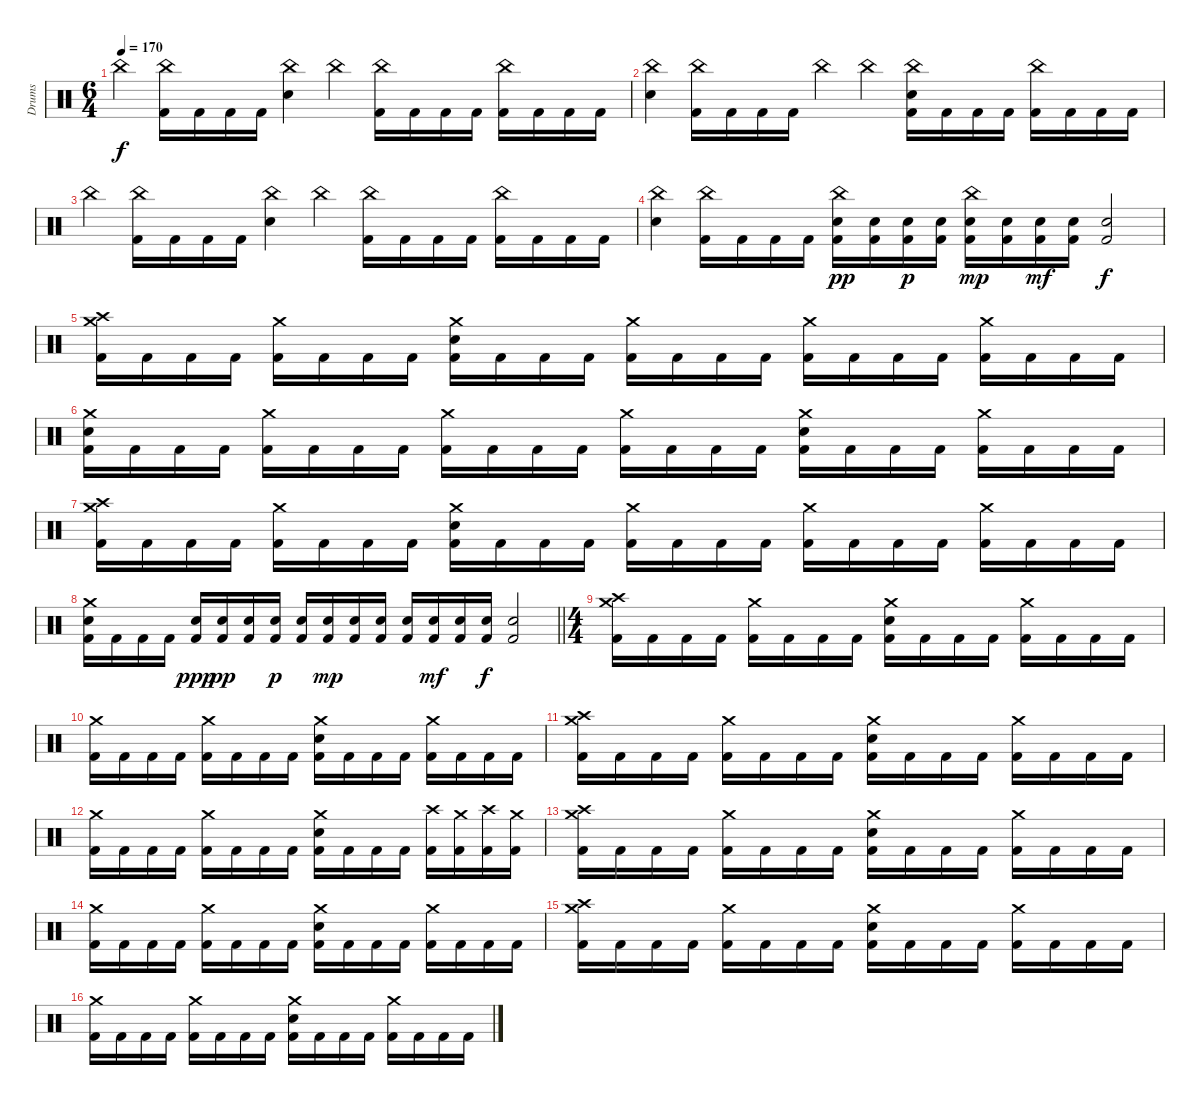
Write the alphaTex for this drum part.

\track ("Drums" "Drums") {instrument percussion}
\staff {score}
\articulation defaults
\ts (6 4)
\tempo 170
\clef neutral
\ks c "China (hit)".4{dy f}
("China (hit)" "Kick (hit) 2").16 "Kick (hit) 2".16 "Kick (hit) 2".16 "Kick (hit) 2".16 ("China (hit)" "Electric Snare (hit)").4 "China (hit)".4 ("China (hit)" "Kick (hit) 2").16 "Kick (hit) 2".16 "Kick (hit) 2".16 "Kick (hit) 2".16 ("China (hit)" "Kick (hit) 2").16 "Kick (hit) 2".16 "Kick (hit) 2".16 "Kick (hit) 2".16 |
("China (hit)" "Electric Snare (hit)").4 ("China (hit)" "Kick (hit) 2").16 "Kick (hit) 2".16 "Kick (hit) 2".16 "Kick (hit) 2".16 "China (hit)".4 "China (hit)".4 ("China (hit)" "Electric Snare (hit)" "Kick (hit) 2").16 "Kick (hit) 2".16 "Kick (hit) 2".16 "Kick (hit) 2".16 ("China (hit)" "Kick (hit) 2").16 "Kick (hit) 2".16 "Kick (hit) 2".16 "Kick (hit) 2".16 |
"China (hit)".4 ("China (hit)" "Kick (hit) 2").16 "Kick (hit) 2".16 "Kick (hit) 2".16 "Kick (hit) 2".16 ("China (hit)" "Electric Snare (hit)").4 "China (hit)".4 ("China (hit)" "Kick (hit) 2").16 "Kick (hit) 2".16 "Kick (hit) 2".16 "Kick (hit) 2".16 ("China (hit)" "Kick (hit) 2").16 "Kick (hit) 2".16 "Kick (hit) 2".16 "Kick (hit) 2".16 |
("China (hit)" "Electric Snare (hit)").4 ("China (hit)" "Kick (hit) 2").16 "Kick (hit) 2".16 "Kick (hit) 2".16 "Kick (hit) 2".16 ("China (hit)" "Electric Snare (hit)" "Kick (hit) 2").16{dy pp} ("Electric Snare (hit)" "Kick (hit) 2").16 ("Electric Snare (hit)" "Kick (hit) 2").16{dy p} ("Electric Snare (hit)" "Kick (hit) 2").16 ("China (hit)" "Electric Snare (hit)" "Kick (hit) 2").16{dy mp} ("Electric Snare (hit)" "Kick (hit) 2").16 ("Electric Snare (hit)" "Kick (hit) 2").16{dy mf} ("Electric Snare (hit)" "Kick (hit) 2").16 ("Electric Snare (hit)" "Kick (hit) 2").2{dy f} |
("Crash high (hit)" "Crash medium (hit)" "Kick (hit) 2").16 "Kick (hit) 2".16 "Kick (hit) 2".16 "Kick (hit) 2".16{beam split} ("Crash medium (hit)" "Kick (hit) 2").16 "Kick (hit) 2".16 "Kick (hit) 2".16 "Kick (hit) 2".16{beam split} ("Crash medium (hit)" "Electric Snare (hit)" "Kick (hit) 2").16 "Kick (hit) 2".16 "Kick (hit) 2".16 "Kick (hit) 2".16 ("Crash medium (hit)" "Kick (hit) 2").16 "Kick (hit) 2".16 "Kick (hit) 2".16 "Kick (hit) 2".16{beam split} ("Crash medium (hit)" "Kick (hit) 2").16 "Kick (hit) 2".16 "Kick (hit) 2".16 "Kick (hit) 2".16{beam split} ("Crash medium (hit)" "Kick (hit) 2").16 "Kick (hit) 2".16 "Kick (hit) 2".16 "Kick (hit) 2".16 |
("Crash medium (hit)" "Electric Snare (hit)" "Kick (hit) 2").16 "Kick (hit) 2".16 "Kick (hit) 2".16 "Kick (hit) 2".16{beam split} ("Crash medium (hit)" "Kick (hit) 2").16 "Kick (hit) 2".16 "Kick (hit) 2".16 "Kick (hit) 2".16{beam split} ("Crash medium (hit)" "Kick (hit) 2").16 "Kick (hit) 2".16 "Kick (hit) 2".16 "Kick (hit) 2".16 ("Crash medium (hit)" "Kick (hit) 2").16 "Kick (hit) 2".16 "Kick (hit) 2".16 "Kick (hit) 2".16{beam split} ("Crash medium (hit)" "Electric Snare (hit)" "Kick (hit) 2").16 "Kick (hit) 2".16 "Kick (hit) 2".16 "Kick (hit) 2".16{beam split} ("Crash medium (hit)" "Kick (hit) 2").16 "Kick (hit) 2".16 "Kick (hit) 2".16 "Kick (hit) 2".16 |
("Crash high (hit)" "Crash medium (hit)" "Kick (hit) 2").16 "Kick (hit) 2".16 "Kick (hit) 2".16 "Kick (hit) 2".16{beam split} ("Crash medium (hit)" "Kick (hit) 2").16 "Kick (hit) 2".16 "Kick (hit) 2".16 "Kick (hit) 2".16{beam split} ("Crash medium (hit)" "Electric Snare (hit)" "Kick (hit) 2").16 "Kick (hit) 2".16 "Kick (hit) 2".16 "Kick (hit) 2".16 ("Crash medium (hit)" "Kick (hit) 2").16 "Kick (hit) 2".16 "Kick (hit) 2".16 "Kick (hit) 2".16{beam split} ("Crash medium (hit)" "Kick (hit) 2").16 "Kick (hit) 2".16 "Kick (hit) 2".16 "Kick (hit) 2".16{beam split} ("Crash medium (hit)" "Kick (hit) 2").16 "Kick (hit) 2".16 "Kick (hit) 2".16 "Kick (hit) 2".16 |
\barLineRight lightlight
("Crash medium (hit)" "Electric Snare (hit)" "Kick (hit) 2").16 "Kick (hit) 2".16 "Kick (hit) 2".16 "Kick (hit) 2".16 ("Electric Snare (hit)" "Kick (hit) 2").16{dy ppp} ("Electric Snare (hit)" "Kick (hit) 2").16{dy pp} ("Electric Snare (hit)" "Kick (hit) 2").16 ("Electric Snare (hit)" "Kick (hit) 2").16{dy p} ("Electric Snare (hit)" "Kick (hit) 2").16 ("Electric Snare (hit)" "Kick (hit) 2").16{dy mp} ("Electric Snare (hit)" "Kick (hit) 2").16 ("Electric Snare (hit)" "Kick (hit) 2").16 ("Electric Snare (hit)" "Kick (hit) 2").16 ("Electric Snare (hit)" "Kick (hit) 2").16{dy mf} ("Electric Snare (hit)" "Kick (hit) 2").16 ("Electric Snare (hit)" "Kick (hit) 2").16{dy f} ("Electric Snare (hit)" "Kick (hit) 2").2 |
\ts (4 4)
("Crash high (hit)" "Crash medium (hit)" "Kick (hit) 2").16 "Kick (hit) 2".16 "Kick (hit) 2".16 "Kick (hit) 2".16 ("Crash medium (hit)" "Kick (hit) 2").16 "Kick (hit) 2".16 "Kick (hit) 2".16 "Kick (hit) 2".16 ("Crash medium (hit)" "Electric Snare (hit)" "Kick (hit) 2").16 "Kick (hit) 2".16 "Kick (hit) 2".16 "Kick (hit) 2".16 ("Crash medium (hit)" "Kick (hit) 2").16 "Kick (hit) 2".16 "Kick (hit) 2".16 "Kick (hit) 2".16 |
("Crash medium (hit)" "Kick (hit) 2").16 "Kick (hit) 2".16 "Kick (hit) 2".16 "Kick (hit) 2".16 ("Crash medium (hit)" "Kick (hit) 2").16 "Kick (hit) 2".16 "Kick (hit) 2".16 "Kick (hit) 2".16 ("Crash medium (hit)" "Electric Snare (hit)" "Kick (hit) 2").16 "Kick (hit) 2".16 "Kick (hit) 2".16 "Kick (hit) 2".16 ("Crash medium (hit)" "Kick (hit) 2").16 "Kick (hit) 2".16 "Kick (hit) 2".16 "Kick (hit) 2".16 |
("Crash high (hit)" "Crash medium (hit)" "Kick (hit) 2").16 "Kick (hit) 2".16 "Kick (hit) 2".16 "Kick (hit) 2".16 ("Crash medium (hit)" "Kick (hit) 2").16 "Kick (hit) 2".16 "Kick (hit) 2".16 "Kick (hit) 2".16 ("Crash medium (hit)" "Electric Snare (hit)" "Kick (hit) 2").16 "Kick (hit) 2".16 "Kick (hit) 2".16 "Kick (hit) 2".16 ("Crash medium (hit)" "Kick (hit) 2").16 "Kick (hit) 2".16 "Kick (hit) 2".16 "Kick (hit) 2".16 |
("Crash medium (hit)" "Kick (hit) 2").16 "Kick (hit) 2".16 "Kick (hit) 2".16 "Kick (hit) 2".16 ("Crash medium (hit)" "Kick (hit) 2").16 "Kick (hit) 2".16 "Kick (hit) 2".16 "Kick (hit) 2".16 ("Crash medium (hit)" "Electric Snare (hit)" "Kick (hit) 2").16 "Kick (hit) 2".16 "Kick (hit) 2".16 "Kick (hit) 2".16 ("Crash high (hit)" "Kick (hit) 2").16 ("Crash medium (hit)" "Kick (hit) 2").16 ("Crash high (hit)" "Kick (hit) 2").16 ("Crash medium (hit)" "Kick (hit) 2").16 |
("Crash high (hit)" "Crash medium (hit)" "Kick (hit) 2").16 "Kick (hit) 2".16 "Kick (hit) 2".16 "Kick (hit) 2".16 ("Crash medium (hit)" "Kick (hit) 2").16 "Kick (hit) 2".16 "Kick (hit) 2".16 "Kick (hit) 2".16 ("Crash medium (hit)" "Electric Snare (hit)" "Kick (hit) 2").16 "Kick (hit) 2".16 "Kick (hit) 2".16 "Kick (hit) 2".16 ("Crash medium (hit)" "Kick (hit) 2").16 "Kick (hit) 2".16 "Kick (hit) 2".16 "Kick (hit) 2".16 |
("Crash medium (hit)" "Kick (hit) 2").16 "Kick (hit) 2".16 "Kick (hit) 2".16 "Kick (hit) 2".16 ("Crash medium (hit)" "Kick (hit) 2").16 "Kick (hit) 2".16 "Kick (hit) 2".16 "Kick (hit) 2".16 ("Crash medium (hit)" "Electric Snare (hit)" "Kick (hit) 2").16 "Kick (hit) 2".16 "Kick (hit) 2".16 "Kick (hit) 2".16 ("Crash medium (hit)" "Kick (hit) 2").16 "Kick (hit) 2".16 "Kick (hit) 2".16 "Kick (hit) 2".16 |
("Crash high (hit)" "Crash medium (hit)" "Kick (hit) 2").16 "Kick (hit) 2".16 "Kick (hit) 2".16 "Kick (hit) 2".16 ("Crash medium (hit)" "Kick (hit) 2").16 "Kick (hit) 2".16 "Kick (hit) 2".16 "Kick (hit) 2".16 ("Crash medium (hit)" "Electric Snare (hit)" "Kick (hit) 2").16 "Kick (hit) 2".16 "Kick (hit) 2".16 "Kick (hit) 2".16 ("Crash medium (hit)" "Kick (hit) 2").16 "Kick (hit) 2".16 "Kick (hit) 2".16 "Kick (hit) 2".16 |
("Crash medium (hit)" "Kick (hit) 2").16 "Kick (hit) 2".16 "Kick (hit) 2".16 "Kick (hit) 2".16 ("Crash medium (hit)" "Kick (hit) 2").16 "Kick (hit) 2".16 "Kick (hit) 2".16 "Kick (hit) 2".16 ("Crash medium (hit)" "Electric Snare (hit)" "Kick (hit) 2").16 "Kick (hit) 2".16 "Kick (hit) 2".16 "Kick (hit) 2".16 ("Crash medium (hit)" "Kick (hit) 2").16 "Kick (hit) 2".16 "Kick (hit) 2".16 "Kick (hit) 2".16
